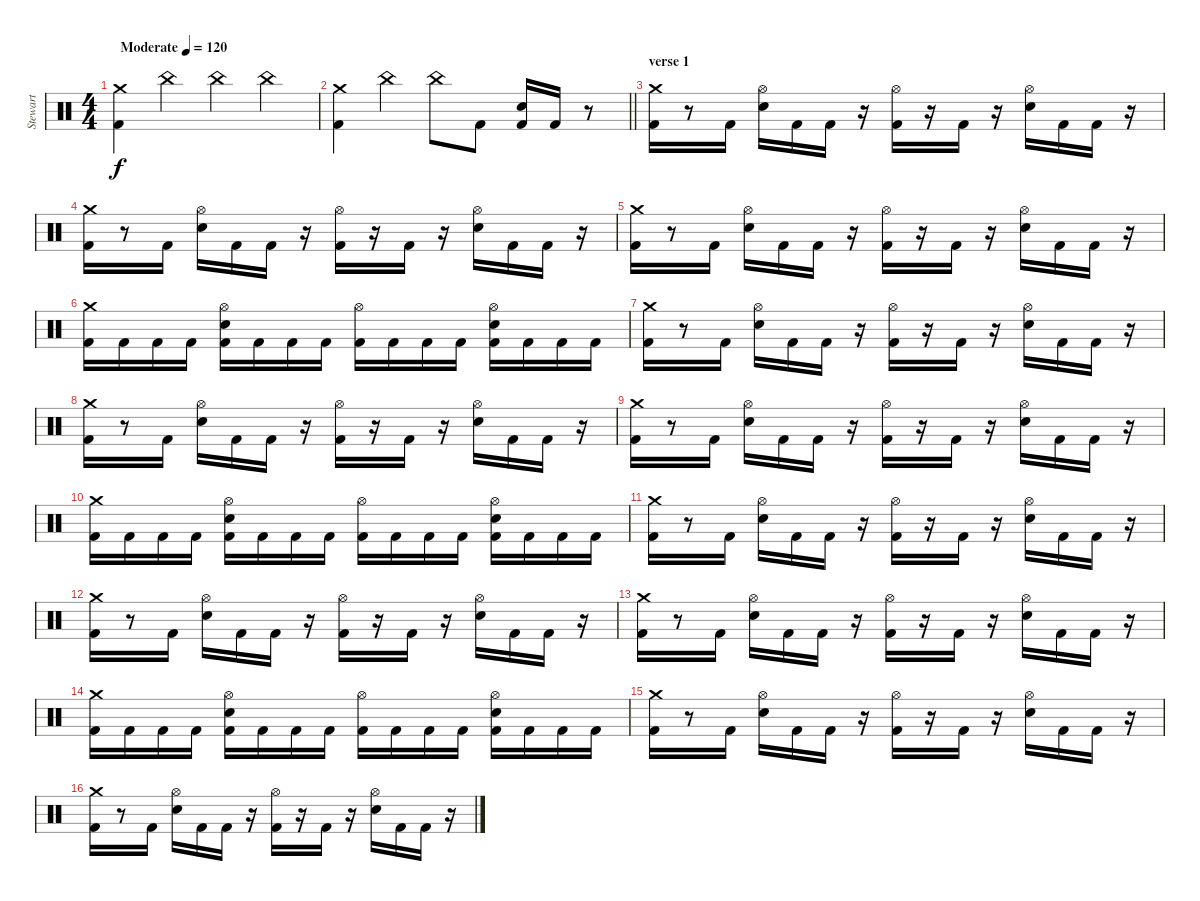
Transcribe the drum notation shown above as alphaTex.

\track ("Stewart" "Stewart") {instrument percussion}
\staff {score}
\articulation defaults
\ts (4 4)
\tempo (120 "Moderate")
\clef neutral
\ks c
("Crash medium (hit)" "Kick (hit) 2").4{dy f} "China (hit)".4 "China (hit)".4 "China (hit)".4 |
\barLineRight lightlight
("Crash medium (hit)" "Kick (hit) 2").4 "China (hit)".4 "China (hit)".8 "Kick (hit) 2".8 ("Electric Snare (hit)" "Kick (hit) 2").16 "Kick (hit) 2".16 r.8 |
\section ("" "verse 1")
("Crash medium (hit)" "Kick (hit) 2").16 r.8 "Kick (hit) 2".16 ("Hi-Hat (open)" "Electric Snare (hit)").16 "Kick (hit) 2".16 "Kick (hit) 2".16 r.16 ("Hi-Hat (open)" "Kick (hit) 2").16 r.16 "Kick (hit) 2".16 r.16 ("Hi-Hat (open)" "Electric Snare (hit)").16 "Kick (hit) 2".16 "Kick (hit) 2".16 r.16 |
("Crash medium (hit)" "Kick (hit) 2").16 r.8 "Kick (hit) 2".16 ("Hi-Hat (open)" "Electric Snare (hit)").16 "Kick (hit) 2".16 "Kick (hit) 2".16 r.16 ("Hi-Hat (open)" "Kick (hit) 2").16 r.16 "Kick (hit) 2".16 r.16 ("Hi-Hat (open)" "Electric Snare (hit)").16 "Kick (hit) 2".16 "Kick (hit) 2".16 r.16 |
("Crash medium (hit)" "Kick (hit) 2").16 r.8 "Kick (hit) 2".16 ("Hi-Hat (open)" "Electric Snare (hit)").16 "Kick (hit) 2".16 "Kick (hit) 2".16 r.16 ("Hi-Hat (open)" "Kick (hit) 2").16 r.16 "Kick (hit) 2".16 r.16 ("Hi-Hat (open)" "Electric Snare (hit)").16 "Kick (hit) 2".16 "Kick (hit) 2".16 r.16 |
("Crash medium (hit)" "Kick (hit) 2").16 "Kick (hit) 2".16 "Kick (hit) 2".16 "Kick (hit) 2".16 ("Hi-Hat (open)" "Electric Snare (hit)" "Kick (hit) 2").16 "Kick (hit) 2".16 "Kick (hit) 2".16 "Kick (hit) 2".16 ("Hi-Hat (open)" "Kick (hit) 2").16 "Kick (hit) 2".16 "Kick (hit) 2".16 "Kick (hit) 2".16 ("Hi-Hat (open)" "Electric Snare (hit)" "Kick (hit) 2").16 "Kick (hit) 2".16 "Kick (hit) 2".16 "Kick (hit) 2".16 |
("Crash medium (hit)" "Kick (hit) 2").16 r.8 "Kick (hit) 2".16 ("Hi-Hat (open)" "Electric Snare (hit)").16 "Kick (hit) 2".16 "Kick (hit) 2".16 r.16 ("Hi-Hat (open)" "Kick (hit) 2").16 r.16 "Kick (hit) 2".16 r.16 ("Hi-Hat (open)" "Electric Snare (hit)").16 "Kick (hit) 2".16 "Kick (hit) 2".16 r.16 |
("Crash medium (hit)" "Kick (hit) 2").16 r.8 "Kick (hit) 2".16 ("Hi-Hat (open)" "Electric Snare (hit)").16 "Kick (hit) 2".16 "Kick (hit) 2".16 r.16 ("Hi-Hat (open)" "Kick (hit) 2").16 r.16 "Kick (hit) 2".16 r.16 ("Hi-Hat (open)" "Electric Snare (hit)").16 "Kick (hit) 2".16 "Kick (hit) 2".16 r.16 |
("Crash medium (hit)" "Kick (hit) 2").16 r.8 "Kick (hit) 2".16 ("Hi-Hat (open)" "Electric Snare (hit)").16 "Kick (hit) 2".16 "Kick (hit) 2".16 r.16 ("Hi-Hat (open)" "Kick (hit) 2").16 r.16 "Kick (hit) 2".16 r.16 ("Hi-Hat (open)" "Electric Snare (hit)").16 "Kick (hit) 2".16 "Kick (hit) 2".16 r.16 |
("Crash medium (hit)" "Kick (hit) 2").16 "Kick (hit) 2".16 "Kick (hit) 2".16 "Kick (hit) 2".16 ("Hi-Hat (open)" "Electric Snare (hit)" "Kick (hit) 2").16 "Kick (hit) 2".16 "Kick (hit) 2".16 "Kick (hit) 2".16 ("Hi-Hat (open)" "Kick (hit) 2").16 "Kick (hit) 2".16 "Kick (hit) 2".16 "Kick (hit) 2".16 ("Hi-Hat (open)" "Electric Snare (hit)" "Kick (hit) 2").16 "Kick (hit) 2".16 "Kick (hit) 2".16 "Kick (hit) 2".16 |
("Crash medium (hit)" "Kick (hit) 2").16 r.8 "Kick (hit) 2".16 ("Hi-Hat (open)" "Electric Snare (hit)").16 "Kick (hit) 2".16 "Kick (hit) 2".16 r.16 ("Hi-Hat (open)" "Kick (hit) 2").16 r.16 "Kick (hit) 2".16 r.16 ("Hi-Hat (open)" "Electric Snare (hit)").16 "Kick (hit) 2".16 "Kick (hit) 2".16 r.16 |
("Crash medium (hit)" "Kick (hit) 2").16 r.8 "Kick (hit) 2".16 ("Hi-Hat (open)" "Electric Snare (hit)").16 "Kick (hit) 2".16 "Kick (hit) 2".16 r.16 ("Hi-Hat (open)" "Kick (hit) 2").16 r.16 "Kick (hit) 2".16 r.16 ("Hi-Hat (open)" "Electric Snare (hit)").16 "Kick (hit) 2".16 "Kick (hit) 2".16 r.16 |
("Crash medium (hit)" "Kick (hit) 2").16 r.8 "Kick (hit) 2".16 ("Hi-Hat (open)" "Electric Snare (hit)").16 "Kick (hit) 2".16 "Kick (hit) 2".16 r.16 ("Hi-Hat (open)" "Kick (hit) 2").16 r.16 "Kick (hit) 2".16 r.16 ("Hi-Hat (open)" "Electric Snare (hit)").16 "Kick (hit) 2".16 "Kick (hit) 2".16 r.16 |
("Crash medium (hit)" "Kick (hit) 2").16 "Kick (hit) 2".16 "Kick (hit) 2".16 "Kick (hit) 2".16 ("Hi-Hat (open)" "Electric Snare (hit)" "Kick (hit) 2").16 "Kick (hit) 2".16 "Kick (hit) 2".16 "Kick (hit) 2".16 ("Hi-Hat (open)" "Kick (hit) 2").16 "Kick (hit) 2".16 "Kick (hit) 2".16 "Kick (hit) 2".16 ("Hi-Hat (open)" "Electric Snare (hit)" "Kick (hit) 2").16 "Kick (hit) 2".16 "Kick (hit) 2".16 "Kick (hit) 2".16 |
("Crash medium (hit)" "Kick (hit) 2").16 r.8 "Kick (hit) 2".16 ("Hi-Hat (open)" "Electric Snare (hit)").16 "Kick (hit) 2".16 "Kick (hit) 2".16 r.16 ("Hi-Hat (open)" "Kick (hit) 2").16 r.16 "Kick (hit) 2".16 r.16 ("Hi-Hat (open)" "Electric Snare (hit)").16 "Kick (hit) 2".16 "Kick (hit) 2".16 r.16 |
("Crash medium (hit)" "Kick (hit) 2").16 r.8 "Kick (hit) 2".16 ("Hi-Hat (open)" "Electric Snare (hit)").16 "Kick (hit) 2".16 "Kick (hit) 2".16 r.16 ("Hi-Hat (open)" "Kick (hit) 2").16 r.16 "Kick (hit) 2".16 r.16 ("Hi-Hat (open)" "Electric Snare (hit)").16 "Kick (hit) 2".16 "Kick (hit) 2".16 r.16
